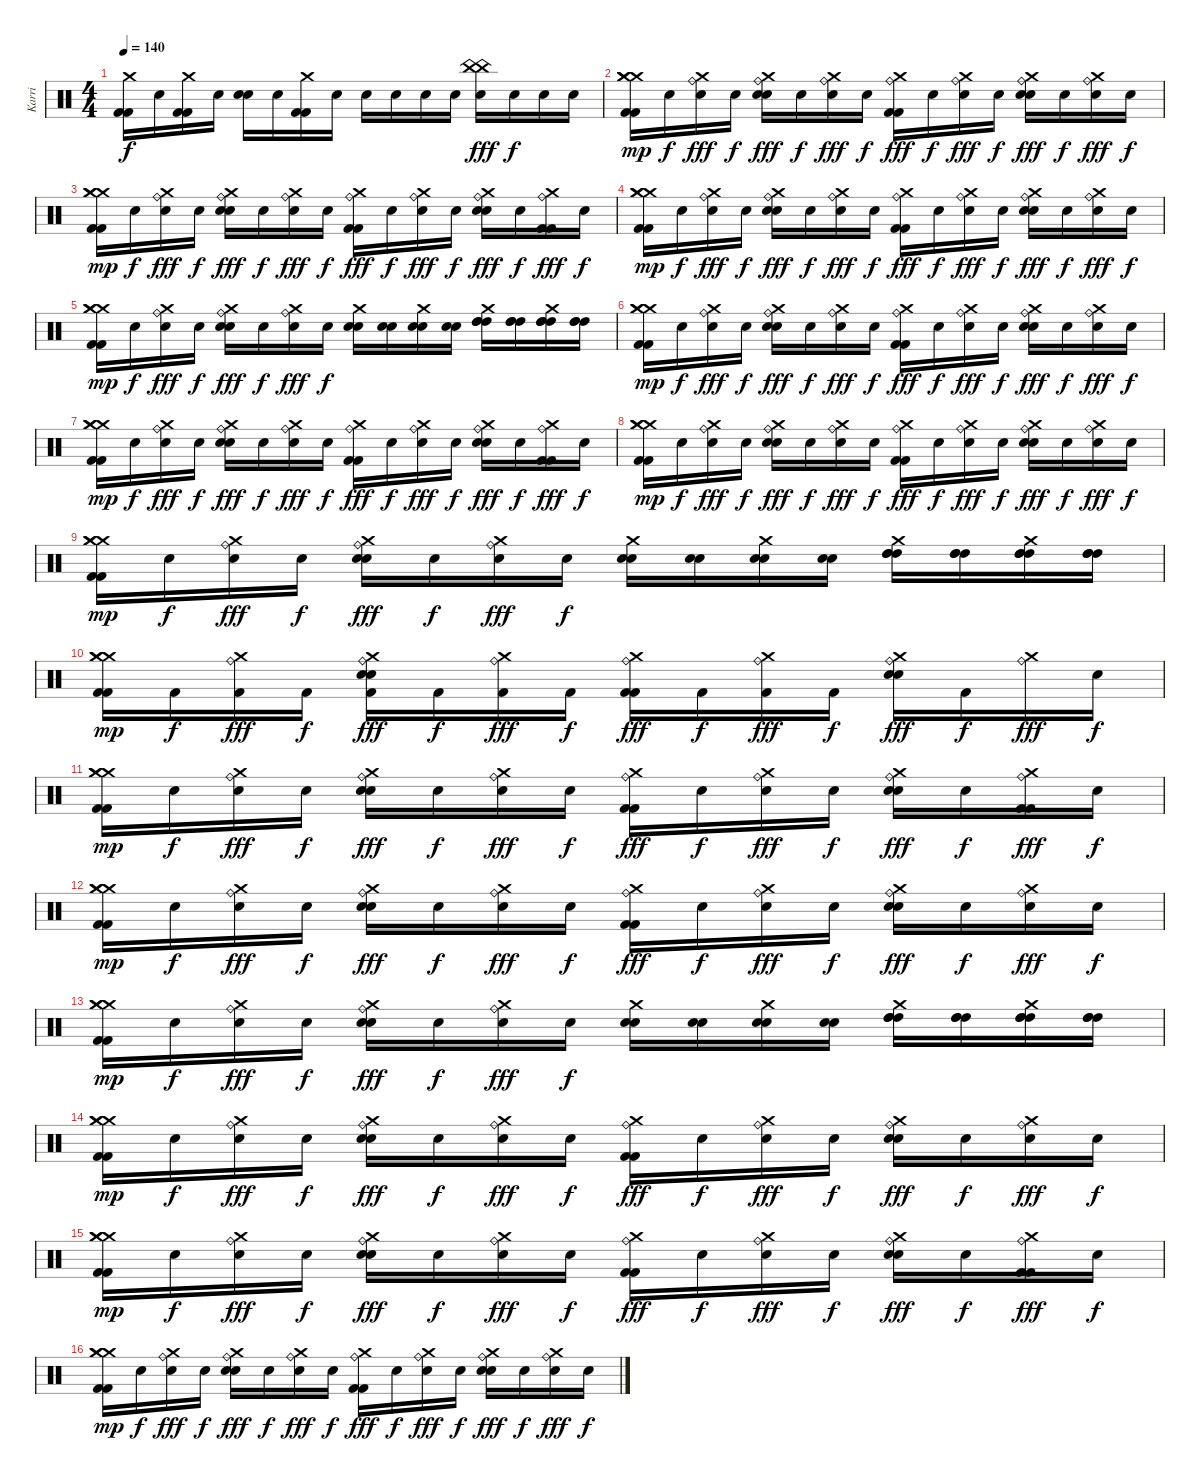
\track ("Karri" "Karri") {instrument percussion}
\staff {score}
\articulation defaults
\ts (4 4)
\tempo 140
\clef neutral
\ks c
("Crash medium (hit)" "Kick (hit) 2" "Kick (hit) 2").16{dy f} "Snare (hit)"{x}.16 ("Crash medium (hit)" "Kick (hit) 2" "Kick (hit) 2").16 "Snare (hit)"{x}.16 ("Snare (hit) 2" "Snare (hit) 2").16 "Snare (hit)"{x}.16 ("Crash medium (hit)" "Kick (hit) 2" "Kick (hit) 2").16 "Snare (hit)"{x}.16 "Snare (hit)"{x}.16 "Snare (hit)"{x}.16 "Snare (hit)"{x}.16 "Snare (hit)"{x}.16 ("China (hit)" "China (hit)" "Snare (hit) 2"{x}).16{dy fff} "Snare (hit)"{x}.16{dy f} "Snare (hit)"{x}.16 "Snare (hit)"{x}.16 |
("Crash medium (hit)" "Crash medium (hit)" "Crash medium (hit)" "Kick (hit) 2" "Kick (hit) 2").16{dy mp} "Snare (hit)"{x}.16{dy f} ("Ride (bell)" "Crash medium (hit)"{x} "Snare (hit)"{x}).16{dy fff} "Snare (hit)"{x}.16{dy f} ("Ride (bell)" "Crash medium (hit)"{x} "Snare (hit) 2" "Snare (hit) 2").16{dy fff} "Snare (hit)"{x}.16{dy f} ("Ride (bell)" "Crash medium (hit)"{x} "Snare (hit)"{x}).16{dy fff} "Snare (hit)"{x}.16{dy f} ("Ride (bell)" "Crash medium (hit)"{x} "Kick (hit) 2" "Kick (hit) 2").16{dy fff} "Snare (hit)"{x}.16{dy f} ("Ride (bell)" "Crash medium (hit)"{x} "Snare (hit)"{x}).16{dy fff} "Snare (hit)"{x}.16{dy f} ("Ride (bell)" "Crash medium (hit)"{x} "Snare (hit) 2" "Snare (hit) 2").16{dy fff} "Snare (hit)"{x}.16{dy f} ("Ride (bell)" "Crash medium (hit)"{x} "Snare (hit)"{x}).16{dy fff} "Snare (hit)"{x}.16{dy f} |
("Crash medium (hit)" "Crash medium (hit)" "Crash medium (hit)" "Kick (hit) 2" "Kick (hit) 2").16{dy mp} "Snare (hit)"{x}.16{dy f} ("Ride (bell)" "Crash medium (hit)"{x} "Snare (hit)"{x}).16{dy fff} "Snare (hit)"{x}.16{dy f} ("Ride (bell)" "Crash medium (hit)"{x} "Snare (hit) 2" "Snare (hit) 2").16{dy fff} "Snare (hit)"{x}.16{dy f} ("Ride (bell)" "Crash medium (hit)"{x} "Snare (hit)"{x}).16{dy fff} "Snare (hit)"{x}.16{dy f} ("Ride (bell)" "Crash medium (hit)"{x} "Kick (hit) 2" "Kick (hit) 2").16{dy fff} "Snare (hit)"{x}.16{dy f} ("Ride (bell)" "Crash medium (hit)"{x} "Snare (hit)"{x}).16{dy fff} "Snare (hit)"{x}.16{dy f} ("Ride (bell)" "Crash medium (hit)"{x} "Snare (hit) 2" "Snare (hit) 2").16{dy fff} "Snare (hit)"{x}.16{dy f} ("Ride (bell)" "Crash medium (hit)"{x} "Kick (hit) 2" "Kick (hit) 2").16{dy fff} "Snare (hit)"{x}.16{dy f} |
("Crash medium (hit)" "Crash medium (hit)" "Crash medium (hit)" "Kick (hit) 2" "Kick (hit) 2").16{dy mp} "Snare (hit)"{x}.16{dy f} ("Ride (bell)" "Crash medium (hit)"{x} "Snare (hit)"{x}).16{dy fff} "Snare (hit)"{x}.16{dy f} ("Ride (bell)" "Crash medium (hit)"{x} "Snare (hit) 2" "Snare (hit) 2").16{dy fff} "Snare (hit)"{x}.16{dy f} ("Ride (bell)" "Crash medium (hit)"{x} "Snare (hit)"{x}).16{dy fff} "Snare (hit)"{x}.16{dy f} ("Ride (bell)" "Crash medium (hit)"{x} "Kick (hit) 2" "Kick (hit) 2").16{dy fff} "Snare (hit)"{x}.16{dy f} ("Ride (bell)" "Crash medium (hit)"{x} "Snare (hit)"{x}).16{dy fff} "Snare (hit)"{x}.16{dy f} ("Ride (bell)" "Crash medium (hit)"{x} "Snare (hit) 2" "Snare (hit) 2").16{dy fff} "Snare (hit)"{x}.16{dy f} ("Ride (bell)" "Crash medium (hit)"{x} "Snare (hit)"{x}).16{dy fff} "Snare (hit)"{x}.16{dy f} |
("Crash medium (hit)" "Crash medium (hit)" "Crash medium (hit)" "Kick (hit) 2" "Kick (hit) 2").16{dy mp} "Snare (hit)"{x}.16{dy f} ("Ride (bell)" "Crash medium (hit)"{x} "Snare (hit)"{x}).16{dy fff} "Snare (hit)"{x}.16{dy f} ("Ride (bell)" "Crash medium (hit)"{x} "Snare (hit) 2" "Snare (hit) 2").16{dy fff} "Snare (hit)"{x}.16{dy f} ("Ride (bell)" "Crash medium (hit)"{x} "Snare (hit)"{x}).16{dy fff} "Snare (hit)"{x}.16{dy f} ("Crash medium (hit)"{x} "Snare (hit) 2" "Snare (hit) 2").16 ("Snare (hit) 2" "Snare (hit) 2").16 ("Crash medium (hit)"{x} "Snare (hit) 2" "Snare (hit) 2").16 ("Snare (hit) 2" "Snare (hit) 2").16 ("Crash medium (hit)"{x} "High Tom (hit)" "High Tom (hit)" "High Tom (hit)").16 ("High Tom (hit)" "High Tom (hit)" "High Tom (hit)").16 ("Crash medium (hit)"{x} "High Tom (hit)" "High Tom (hit)" "High Tom (hit)").16 ("High Tom (hit)" "High Tom (hit)" "High Tom (hit)").16 |
("Crash medium (hit)" "Crash medium (hit)" "Crash medium (hit)" "Kick (hit) 2" "Kick (hit) 2").16{dy mp} "Snare (hit)"{x}.16{dy f} ("Ride (bell)" "Crash medium (hit)"{x} "Snare (hit)"{x}).16{dy fff} "Snare (hit)"{x}.16{dy f} ("Ride (bell)" "Crash medium (hit)"{x} "Snare (hit) 2" "Snare (hit) 2").16{dy fff} "Snare (hit)"{x}.16{dy f} ("Ride (bell)" "Crash medium (hit)"{x} "Snare (hit)"{x}).16{dy fff} "Snare (hit)"{x}.16{dy f} ("Ride (bell)" "Crash medium (hit)"{x} "Kick (hit) 2" "Kick (hit) 2").16{dy fff} "Snare (hit)"{x}.16{dy f} ("Ride (bell)" "Crash medium (hit)"{x} "Snare (hit)"{x}).16{dy fff} "Snare (hit)"{x}.16{dy f} ("Ride (bell)" "Crash medium (hit)"{x} "Snare (hit) 2" "Snare (hit) 2").16{dy fff} "Snare (hit)"{x}.16{dy f} ("Ride (bell)" "Crash medium (hit)"{x} "Snare (hit)"{x}).16{dy fff} "Snare (hit)"{x}.16{dy f} |
("Crash medium (hit)" "Crash medium (hit)" "Crash medium (hit)" "Kick (hit) 2" "Kick (hit) 2").16{dy mp} "Snare (hit)"{x}.16{dy f} ("Ride (bell)" "Crash medium (hit)"{x} "Snare (hit)"{x}).16{dy fff} "Snare (hit)"{x}.16{dy f} ("Ride (bell)" "Crash medium (hit)"{x} "Snare (hit) 2" "Snare (hit) 2").16{dy fff} "Snare (hit)"{x}.16{dy f} ("Ride (bell)" "Crash medium (hit)"{x} "Snare (hit)"{x}).16{dy fff} "Snare (hit)"{x}.16{dy f} ("Ride (bell)" "Crash medium (hit)"{x} "Kick (hit) 2" "Kick (hit) 2").16{dy fff} "Snare (hit)"{x}.16{dy f} ("Ride (bell)" "Crash medium (hit)"{x} "Snare (hit)"{x}).16{dy fff} "Snare (hit)"{x}.16{dy f} ("Ride (bell)" "Crash medium (hit)"{x} "Snare (hit) 2" "Snare (hit) 2").16{dy fff} "Snare (hit)"{x}.16{dy f} ("Ride (bell)" "Crash medium (hit)"{x} "Kick (hit) 2" "Kick (hit) 2").16{dy fff} "Snare (hit)"{x}.16{dy f} |
("Crash medium (hit)" "Crash medium (hit)" "Crash medium (hit)" "Kick (hit) 2" "Kick (hit) 2").16{dy mp} "Snare (hit)"{x}.16{dy f} ("Ride (bell)" "Crash medium (hit)"{x} "Snare (hit)"{x}).16{dy fff} "Snare (hit)"{x}.16{dy f} ("Ride (bell)" "Crash medium (hit)"{x} "Snare (hit) 2" "Snare (hit) 2").16{dy fff} "Snare (hit)"{x}.16{dy f} ("Ride (bell)" "Crash medium (hit)"{x} "Snare (hit)"{x}).16{dy fff} "Snare (hit)"{x}.16{dy f} ("Ride (bell)" "Crash medium (hit)"{x} "Kick (hit) 2" "Kick (hit) 2").16{dy fff} "Snare (hit)"{x}.16{dy f} ("Ride (bell)" "Crash medium (hit)"{x} "Snare (hit)"{x}).16{dy fff} "Snare (hit)"{x}.16{dy f} ("Ride (bell)" "Crash medium (hit)"{x} "Snare (hit) 2" "Snare (hit) 2").16{dy fff} "Snare (hit)"{x}.16{dy f} ("Ride (bell)" "Crash medium (hit)"{x} "Snare (hit)"{x}).16{dy fff} "Snare (hit)"{x}.16{dy f} |
("Crash medium (hit)" "Crash medium (hit)" "Crash medium (hit)" "Kick (hit) 2" "Kick (hit) 2").16{dy mp} "Snare (hit)"{x}.16{dy f} ("Ride (bell)" "Crash medium (hit)"{x} "Snare (hit)"{x}).16{dy fff} "Snare (hit)"{x}.16{dy f} ("Ride (bell)" "Crash medium (hit)"{x} "Snare (hit) 2" "Snare (hit) 2").16{dy fff} "Snare (hit)"{x}.16{dy f} ("Ride (bell)" "Crash medium (hit)"{x} "Snare (hit)"{x}).16{dy fff} "Snare (hit)"{x}.16{dy f} ("Crash medium (hit)"{x} "Snare (hit) 2" "Snare (hit) 2").16 ("Snare (hit) 2" "Snare (hit) 2").16 ("Crash medium (hit)"{x} "Snare (hit) 2" "Snare (hit) 2").16 ("Snare (hit) 2" "Snare (hit) 2").16 ("Crash medium (hit)"{x} "High Tom (hit)" "High Tom (hit)" "High Tom (hit)").16 ("High Tom (hit)" "High Tom (hit)" "High Tom (hit)").16 ("Crash medium (hit)"{x} "High Tom (hit)" "High Tom (hit)" "High Tom (hit)").16 ("High Tom (hit)" "High Tom (hit)" "High Tom (hit)").16 |
("Crash medium (hit)" "Crash medium (hit)" "Crash medium (hit)" "Kick (hit) 2" "Kick (hit) 2").16{dy mp} "Kick (hit) 2"{x}.16{dy f} ("Ride (bell)" "Crash medium (hit)"{x} "Kick (hit) 2"{x}).16{dy fff} "Kick (hit) 2"{x}.16{dy f} ("Ride (bell)" "Crash medium (hit)"{x} "Kick (hit) 2" "Snare (hit) 2" "Snare (hit) 2").16{dy fff} "Kick (hit) 2"{x}.16{dy f} ("Ride (bell)" "Crash medium (hit)"{x} "Kick (hit) 2"{x}).16{dy fff} "Kick (hit) 2"{x}.16{dy f} ("Ride (bell)" "Crash medium (hit)"{x} "Kick (hit) 2" "Kick (hit) 2").16{dy fff} "Kick (hit) 2"{x}.16{dy f} ("Ride (bell)" "Crash medium (hit)"{x} "Kick (hit) 2"{x}).16{dy fff} "Kick (hit) 2"{x}.16{dy f} ("Ride (bell)" "Crash medium (hit)"{x} "Snare (hit) 2" "Snare (hit) 2").16{dy fff} "Kick (hit) 2"{x}.16{dy f} ("Ride (bell)" "Crash medium (hit)"{x}).16{dy fff} "Snare (hit)"{x}.16{dy f} |
("Crash medium (hit)" "Crash medium (hit)" "Crash medium (hit)" "Kick (hit) 2" "Kick (hit) 2").16{dy mp} "Snare (hit)"{x}.16{dy f} ("Ride (bell)" "Crash medium (hit)"{x} "Snare (hit)"{x}).16{dy fff} "Snare (hit)"{x}.16{dy f} ("Ride (bell)" "Crash medium (hit)"{x} "Snare (hit) 2" "Snare (hit) 2").16{dy fff} "Snare (hit)"{x}.16{dy f} ("Ride (bell)" "Crash medium (hit)"{x} "Snare (hit)"{x}).16{dy fff} "Snare (hit)"{x}.16{dy f} ("Ride (bell)" "Crash medium (hit)"{x} "Kick (hit) 2" "Kick (hit) 2").16{dy fff} "Snare (hit)"{x}.16{dy f} ("Ride (bell)" "Crash medium (hit)"{x} "Snare (hit)"{x}).16{dy fff} "Snare (hit)"{x}.16{dy f} ("Ride (bell)" "Crash medium (hit)"{x} "Snare (hit) 2" "Snare (hit) 2").16{dy fff} "Snare (hit)"{x}.16{dy f} ("Ride (bell)" "Crash medium (hit)"{x} "Kick (hit) 2" "Kick (hit) 2").16{dy fff} "Snare (hit)"{x}.16{dy f} |
("Crash medium (hit)" "Crash medium (hit)" "Crash medium (hit)" "Kick (hit) 2" "Kick (hit) 2").16{dy mp} "Snare (hit)"{x}.16{dy f} ("Ride (bell)" "Crash medium (hit)"{x} "Snare (hit)"{x}).16{dy fff} "Snare (hit)"{x}.16{dy f} ("Ride (bell)" "Crash medium (hit)"{x} "Snare (hit) 2" "Snare (hit) 2").16{dy fff} "Snare (hit)"{x}.16{dy f} ("Ride (bell)" "Crash medium (hit)"{x} "Snare (hit)"{x}).16{dy fff} "Snare (hit)"{x}.16{dy f} ("Ride (bell)" "Crash medium (hit)"{x} "Kick (hit) 2" "Kick (hit) 2").16{dy fff} "Snare (hit)"{x}.16{dy f} ("Ride (bell)" "Crash medium (hit)"{x} "Snare (hit)"{x}).16{dy fff} "Snare (hit)"{x}.16{dy f} ("Ride (bell)" "Crash medium (hit)"{x} "Snare (hit) 2" "Snare (hit) 2").16{dy fff} "Snare (hit)"{x}.16{dy f} ("Ride (bell)" "Crash medium (hit)"{x} "Snare (hit)"{x}).16{dy fff} "Snare (hit)"{x}.16{dy f} |
("Crash medium (hit)" "Crash medium (hit)" "Crash medium (hit)" "Kick (hit) 2" "Kick (hit) 2").16{dy mp} "Snare (hit)"{x}.16{dy f} ("Ride (bell)" "Crash medium (hit)"{x} "Snare (hit)"{x}).16{dy fff} "Snare (hit)"{x}.16{dy f} ("Ride (bell)" "Crash medium (hit)"{x} "Snare (hit) 2" "Snare (hit) 2").16{dy fff} "Snare (hit)"{x}.16{dy f} ("Ride (bell)" "Crash medium (hit)"{x} "Snare (hit)"{x}).16{dy fff} "Snare (hit)"{x}.16{dy f} ("Crash medium (hit)"{x} "Snare (hit) 2" "Snare (hit) 2").16 ("Snare (hit) 2" "Snare (hit) 2").16 ("Crash medium (hit)"{x} "Snare (hit) 2" "Snare (hit) 2").16 ("Snare (hit) 2" "Snare (hit) 2").16 ("Crash medium (hit)"{x} "High Tom (hit)" "High Tom (hit)" "High Tom (hit)").16 ("High Tom (hit)" "High Tom (hit)" "High Tom (hit)").16 ("Crash medium (hit)"{x} "High Tom (hit)" "High Tom (hit)" "High Tom (hit)").16 ("High Tom (hit)" "High Tom (hit)" "High Tom (hit)").16 |
("Crash medium (hit)" "Crash medium (hit)" "Crash medium (hit)" "Kick (hit) 2" "Kick (hit) 2").16{dy mp} "Snare (hit)"{x}.16{dy f} ("Ride (bell)" "Crash medium (hit)"{x} "Snare (hit)"{x}).16{dy fff} "Snare (hit)"{x}.16{dy f} ("Ride (bell)" "Crash medium (hit)"{x} "Snare (hit) 2" "Snare (hit) 2").16{dy fff} "Snare (hit)"{x}.16{dy f} ("Ride (bell)" "Crash medium (hit)"{x} "Snare (hit)"{x}).16{dy fff} "Snare (hit)"{x}.16{dy f} ("Ride (bell)" "Crash medium (hit)"{x} "Kick (hit) 2" "Kick (hit) 2").16{dy fff} "Snare (hit)"{x}.16{dy f} ("Ride (bell)" "Crash medium (hit)"{x} "Snare (hit)"{x}).16{dy fff} "Snare (hit)"{x}.16{dy f} ("Ride (bell)" "Crash medium (hit)"{x} "Snare (hit) 2" "Snare (hit) 2").16{dy fff} "Snare (hit)"{x}.16{dy f} ("Ride (bell)" "Crash medium (hit)"{x} "Snare (hit)"{x}).16{dy fff} "Snare (hit)"{x}.16{dy f} |
("Crash medium (hit)" "Crash medium (hit)" "Crash medium (hit)" "Kick (hit) 2" "Kick (hit) 2").16{dy mp} "Snare (hit)"{x}.16{dy f} ("Ride (bell)" "Crash medium (hit)"{x} "Snare (hit)"{x}).16{dy fff} "Snare (hit)"{x}.16{dy f} ("Ride (bell)" "Crash medium (hit)"{x} "Snare (hit) 2" "Snare (hit) 2").16{dy fff} "Snare (hit)"{x}.16{dy f} ("Ride (bell)" "Crash medium (hit)"{x} "Snare (hit)"{x}).16{dy fff} "Snare (hit)"{x}.16{dy f} ("Ride (bell)" "Crash medium (hit)"{x} "Kick (hit) 2" "Kick (hit) 2").16{dy fff} "Snare (hit)"{x}.16{dy f} ("Ride (bell)" "Crash medium (hit)"{x} "Snare (hit)"{x}).16{dy fff} "Snare (hit)"{x}.16{dy f} ("Ride (bell)" "Crash medium (hit)"{x} "Snare (hit) 2" "Snare (hit) 2").16{dy fff} "Snare (hit)"{x}.16{dy f} ("Ride (bell)" "Crash medium (hit)"{x} "Kick (hit) 2" "Kick (hit) 2").16{dy fff} "Snare (hit)"{x}.16{dy f} |
("Crash medium (hit)" "Crash medium (hit)" "Crash medium (hit)" "Kick (hit) 2" "Kick (hit) 2").16{dy mp} "Snare (hit)"{x}.16{dy f} ("Ride (bell)" "Crash medium (hit)"{x} "Snare (hit)"{x}).16{dy fff} "Snare (hit)"{x}.16{dy f} ("Ride (bell)" "Crash medium (hit)"{x} "Snare (hit) 2" "Snare (hit) 2").16{dy fff} "Snare (hit)"{x}.16{dy f} ("Ride (bell)" "Crash medium (hit)"{x} "Snare (hit)"{x}).16{dy fff} "Snare (hit)"{x}.16{dy f} ("Ride (bell)" "Crash medium (hit)"{x} "Kick (hit) 2" "Kick (hit) 2").16{dy fff} "Snare (hit)"{x}.16{dy f} ("Ride (bell)" "Crash medium (hit)"{x} "Snare (hit)"{x}).16{dy fff} "Snare (hit)"{x}.16{dy f} ("Ride (bell)" "Crash medium (hit)"{x} "Snare (hit) 2" "Snare (hit) 2").16{dy fff} "Snare (hit)"{x}.16{dy f} ("Ride (bell)" "Crash medium (hit)"{x} "Snare (hit)"{x}).16{dy fff} "Snare (hit)"{x}.16{dy f}
